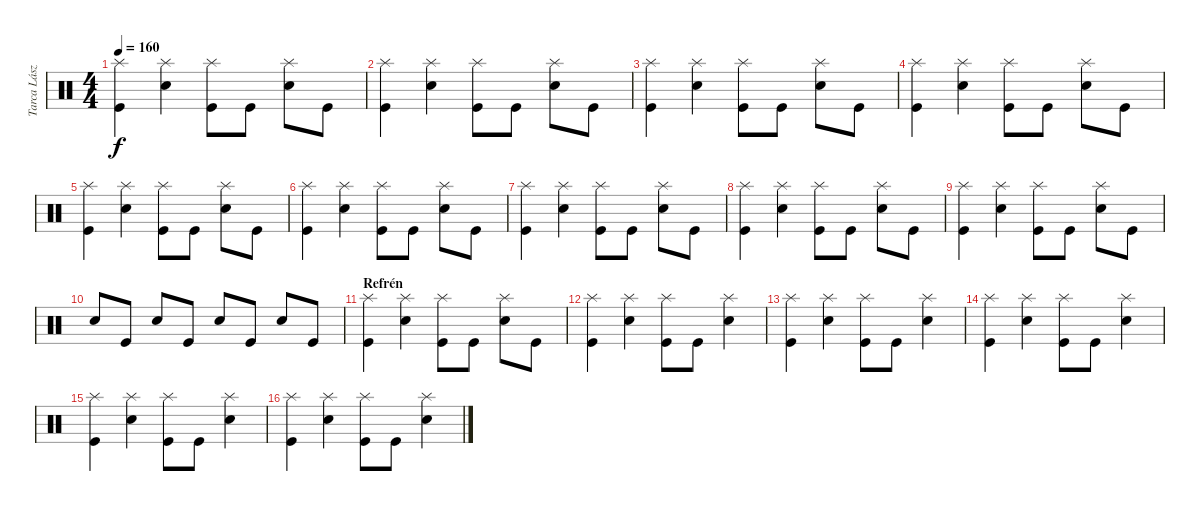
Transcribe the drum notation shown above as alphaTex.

\track ("Tarca László" "Tarca Lász") {instrument percussion}
\staff {score}
\articulation defaults
\ts (4 4)
\tempo 160
\clef neutral
\ks c
("Splash (hit)" "Kick (hit)").4{dy f} ("Splash (hit)" "Electric Snare (hit)").4 ("Splash (hit)" "Kick (hit)").8 "Kick (hit)".8 ("Splash (hit)" "Electric Snare (hit)").8 "Kick (hit)".8 |
("Splash (hit)" "Kick (hit)").4 ("Splash (hit)" "Electric Snare (hit)").4 ("Splash (hit)" "Kick (hit)").8 "Kick (hit)".8 ("Splash (hit)" "Electric Snare (hit)").8 "Kick (hit)".8 |
("Splash (hit)" "Kick (hit)").4 ("Splash (hit)" "Electric Snare (hit)").4 ("Splash (hit)" "Kick (hit)").8 "Kick (hit)".8 ("Splash (hit)" "Electric Snare (hit)").8 "Kick (hit)".8 |
("Splash (hit)" "Kick (hit)").4 ("Splash (hit)" "Electric Snare (hit)").4 ("Splash (hit)" "Kick (hit)").8 "Kick (hit)".8 ("Splash (hit)" "Electric Snare (hit)").8 "Kick (hit)".8 |
("Splash (hit)" "Kick (hit)").4 ("Splash (hit)" "Electric Snare (hit)").4 ("Splash (hit)" "Kick (hit)").8 "Kick (hit)".8 ("Splash (hit)" "Electric Snare (hit)").8 "Kick (hit)".8 |
("Splash (hit)" "Kick (hit)").4 ("Splash (hit)" "Electric Snare (hit)").4 ("Splash (hit)" "Kick (hit)").8 "Kick (hit)".8 ("Splash (hit)" "Electric Snare (hit)").8 "Kick (hit)".8 |
("Splash (hit)" "Kick (hit)").4 ("Splash (hit)" "Electric Snare (hit)").4 ("Splash (hit)" "Kick (hit)").8 "Kick (hit)".8 ("Splash (hit)" "Electric Snare (hit)").8 "Kick (hit)".8 |
("Splash (hit)" "Kick (hit)").4 ("Splash (hit)" "Electric Snare (hit)").4 ("Splash (hit)" "Kick (hit)").8 "Kick (hit)".8 ("Splash (hit)" "Electric Snare (hit)").8 "Kick (hit)".8 |
("Splash (hit)" "Kick (hit)").4 ("Splash (hit)" "Electric Snare (hit)").4 ("Splash (hit)" "Kick (hit)").8 "Kick (hit)".8 ("Splash (hit)" "Electric Snare (hit)").8 "Kick (hit)".8 |
"Snare (hit) 2".8 "Kick (hit)".8 "Snare (hit) 2".8 "Kick (hit)".8 "Snare (hit) 2".8 "Kick (hit)".8 "Snare (hit) 2".8 "Kick (hit)".8 |
\section ("" "Refrén")
("Splash (hit)" "Kick (hit)").4 ("Splash (hit)" "Electric Snare (hit)").4 ("Splash (hit)" "Kick (hit)").8 "Kick (hit)".8 ("Splash (hit)" "Electric Snare (hit)").8 "Kick (hit)".8 |
("Splash (hit)" "Kick (hit)").4 ("Splash (hit)" "Snare (hit) 2").4 ("Splash (hit)" "Kick (hit)").8 "Kick (hit)".8 ("Splash (hit)" "Snare (hit) 2").4 |
("Splash (hit)" "Kick (hit)").4 ("Splash (hit)" "Snare (hit) 2").4 ("Splash (hit)" "Kick (hit)").8 "Kick (hit)".8 ("Splash (hit)" "Snare (hit) 2").4 |
("Splash (hit)" "Kick (hit)").4 ("Splash (hit)" "Snare (hit) 2").4 ("Splash (hit)" "Kick (hit)").8 "Kick (hit)".8 ("Splash (hit)" "Snare (hit) 2").4 |
("Splash (hit)" "Kick (hit)").4 ("Splash (hit)" "Snare (hit) 2").4 ("Splash (hit)" "Kick (hit)").8 "Kick (hit)".8 ("Splash (hit)" "Snare (hit) 2").4 |
("Splash (hit)" "Kick (hit)").4 ("Splash (hit)" "Snare (hit) 2").4 ("Splash (hit)" "Kick (hit)").8 "Kick (hit)".8 ("Splash (hit)" "Snare (hit) 2").4
